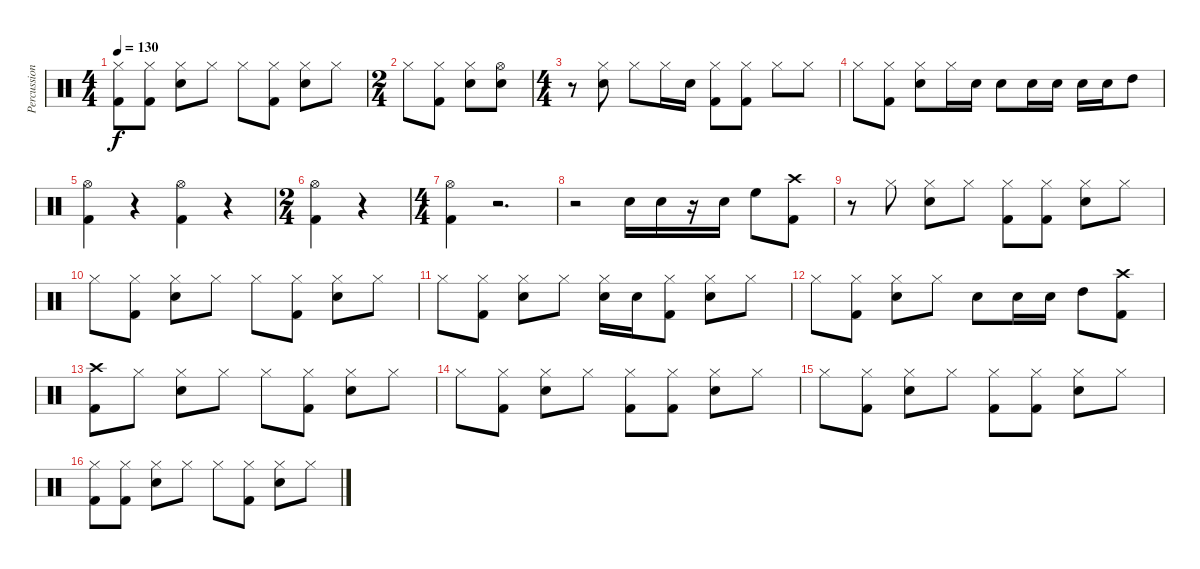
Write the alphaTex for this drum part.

\track ("Percussion" "Percussion") {instrument percussion}
\staff {score}
\articulation defaults
\ts (4 4)
\tempo 130
\clef neutral
\ks c
("Kick (hit) 2" "Hi-Hat (closed)").8{dy f} ("Kick (hit) 2" "Hi-Hat (closed)").8 ("Snare (hit) 2" "Hi-Hat (closed)").8 "Hi-Hat (closed)".8 "Hi-Hat (closed)".8 ("Kick (hit) 2" "Hi-Hat (closed)").8 ("Snare (hit) 2" "Hi-Hat (closed)").8 "Hi-Hat (closed)".8 |
\ts (2 4)
"Hi-Hat (closed)".8 ("Kick (hit) 2" "Hi-Hat (closed)").8 ("Snare (hit) 2" "Hi-Hat (closed)").8 ("Snare (hit) 2" "Hi-Hat (open)").8 |
\ts (4 4)
r.8 ("Snare (hit) 2" "Hi-Hat (closed)").8 "Hi-Hat (closed)".8 "Hi-Hat (closed)".16 "Snare (hit) 2".16 ("Kick (hit) 2" "Hi-Hat (closed)").8 ("Kick (hit) 2" "Hi-Hat (closed)").8 "Hi-Hat (closed)".8 "Hi-Hat (closed)".8 |
"Hi-Hat (closed)".8 ("Kick (hit) 2" "Hi-Hat (closed)").8 ("Snare (hit) 2" "Hi-Hat (closed)").8 "Hi-Hat (closed)".16 "Snare (hit) 2".16 "Snare (hit) 2".8 "Snare (hit) 2".16 "Snare (hit) 2".16 "Snare (hit) 2".16 "Snare (hit) 2".16 "High Tom (hit)".8 |
("Kick (hit) 2" "Hi-Hat (open)").4 r.4 ("Kick (hit) 2" "Hi-Hat (open)").4 r.4 |
\ts (2 4)
("Kick (hit) 2" "Hi-Hat (open)").4 r.4 |
\ts (4 4)
("Kick (hit) 2" "Hi-Hat (open)").4 r.2{d} |
r.2 "Snare (hit) 2".16 "Snare (hit) 2".16 r.16 "Snare (hit) 2".16 "High Floor Tom (hit)".8 ("Kick (hit) 2" "Crash high (hit)").8 |
r.8 "Hi-Hat (closed)".8 ("Snare (hit) 2" "Hi-Hat (closed)").8 "Hi-Hat (closed)".8 ("Kick (hit) 2" "Hi-Hat (closed)").8 ("Kick (hit) 2" "Hi-Hat (closed)").8 ("Snare (hit) 2" "Hi-Hat (closed)").8 "Hi-Hat (closed)".8 |
"Hi-Hat (closed)".8 ("Kick (hit) 2" "Hi-Hat (closed)").8 ("Snare (hit) 2" "Hi-Hat (closed)").8 "Hi-Hat (closed)".8 "Hi-Hat (closed)".8 ("Kick (hit) 2" "Hi-Hat (closed)").8 ("Snare (hit) 2" "Hi-Hat (closed)").8 "Hi-Hat (closed)".8 |
"Hi-Hat (closed)".8 ("Kick (hit) 2" "Hi-Hat (closed)").8 ("Snare (hit) 2" "Hi-Hat (closed)").8 "Hi-Hat (closed)".8 ("Snare (hit) 2" "Hi-Hat (closed)").16 "Snare (hit) 2".16 ("Kick (hit) 2" "Hi-Hat (closed)").8 ("Snare (hit) 2" "Hi-Hat (closed)").8 "Hi-Hat (closed)".8 |
"Hi-Hat (closed)".8 ("Kick (hit) 2" "Hi-Hat (closed)").8 ("Snare (hit) 2" "Hi-Hat (closed)").8 "Hi-Hat (closed)".8 "Snare (hit) 2".8 "Snare (hit) 2".16 "Snare (hit) 2".16 "High Tom (hit)".8 ("Kick (hit) 2" "Crash high (hit)").8 |
("Kick (hit) 2" "Crash high (hit)").8 "Hi-Hat (closed)".8 ("Snare (hit) 2" "Hi-Hat (closed)").8 "Hi-Hat (closed)".8 "Hi-Hat (closed)".8 ("Kick (hit) 2" "Hi-Hat (closed)").8 ("Snare (hit) 2" "Hi-Hat (closed)").8 "Hi-Hat (closed)".8 |
"Hi-Hat (closed)".8 ("Kick (hit) 2" "Hi-Hat (closed)").8 ("Snare (hit) 2" "Hi-Hat (closed)").8 "Hi-Hat (closed)".8 ("Kick (hit) 2" "Hi-Hat (closed)").8 ("Kick (hit) 2" "Hi-Hat (closed)").8 ("Snare (hit) 2" "Hi-Hat (closed)").8 "Hi-Hat (closed)".8 |
"Hi-Hat (closed)".8 ("Kick (hit) 2" "Hi-Hat (closed)").8 ("Snare (hit) 2" "Hi-Hat (closed)").8 "Hi-Hat (closed)".8 ("Kick (hit) 2" "Hi-Hat (closed)").8 ("Kick (hit) 2" "Hi-Hat (closed)").8 ("Snare (hit) 2" "Hi-Hat (closed)").8 "Hi-Hat (closed)".8 |
("Kick (hit) 2" "Hi-Hat (closed)").8 ("Kick (hit) 2" "Hi-Hat (closed)").8 ("Snare (hit) 2" "Hi-Hat (closed)").8 "Hi-Hat (closed)".8 "Hi-Hat (closed)".8 ("Kick (hit) 2" "Hi-Hat (closed)").8 ("Snare (hit) 2" "Hi-Hat (closed)").8 "Hi-Hat (closed)".8
